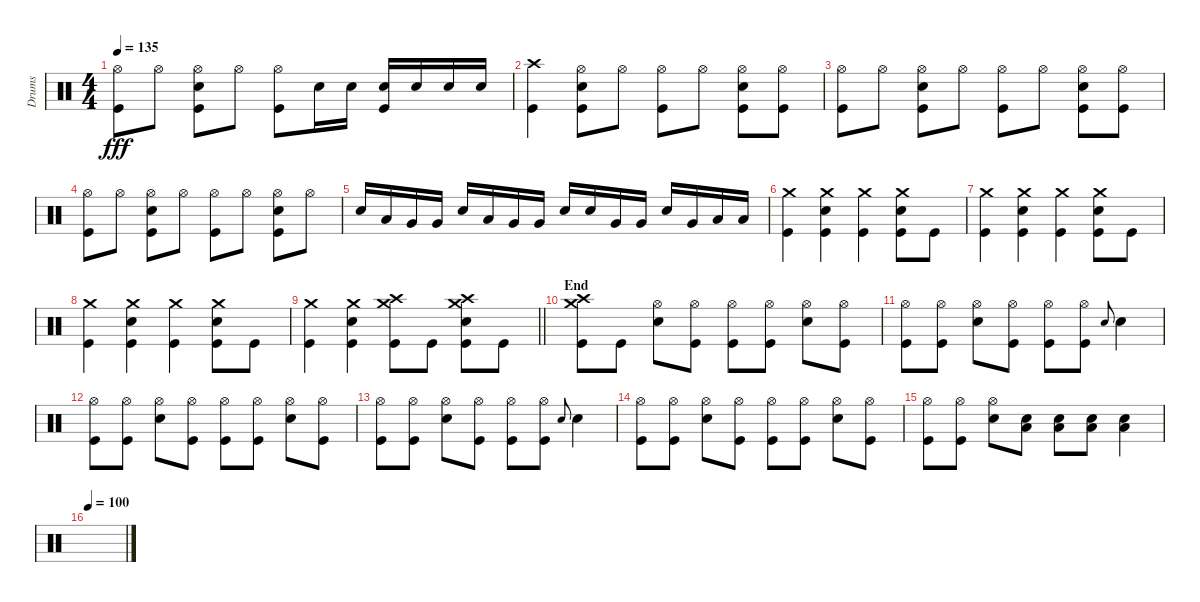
\track ("Drums" "Drums") {instrument percussion}
\staff {score}
\articulation defaults
\ts (4 4)
\tempo 135
\clef neutral
\ks c
("Hi-Hat (open)" "Kick (hit)").8{dy fff} "Hi-Hat (open)".8 ("Hi-Hat (open)" "Snare (hit) 2" "Kick (hit)").8 "Hi-Hat (open)".8 ("Hi-Hat (open)" "Kick (hit)").8 "Snare (hit) 2".16 "Snare (hit) 2".16 ("Snare (hit) 2" "Kick (hit)").16 "Snare (hit) 2".16 "Snare (hit) 2".16 "Snare (hit) 2".16 |
("Crash high (hit)" "Kick (hit)").4 ("Hi-Hat (open)" "Snare (hit) 2" "Kick (hit)").8 "Hi-Hat (open)".8 ("Hi-Hat (open)" "Kick (hit)").8 "Hi-Hat (open)".8 ("Hi-Hat (open)" "Snare (hit) 2" "Kick (hit)").8 ("Hi-Hat (open)" "Kick (hit)").8 |
("Hi-Hat (open)" "Kick (hit)").8 "Hi-Hat (open)".8 ("Hi-Hat (open)" "Snare (hit) 2" "Kick (hit)").8 "Hi-Hat (open)".8 ("Hi-Hat (open)" "Kick (hit)").8 "Hi-Hat (open)".8 ("Hi-Hat (open)" "Snare (hit) 2" "Kick (hit)").8 ("Hi-Hat (open)" "Kick (hit)").8 |
("Hi-Hat (open)" "Kick (hit)").8 "Hi-Hat (open)".8 ("Hi-Hat (open)" "Snare (hit) 2" "Kick (hit)").8 "Hi-Hat (open)".8 ("Hi-Hat (open)" "Kick (hit)").8 "Hi-Hat (open)".8 ("Hi-Hat (open)" "Snare (hit) 2" "Kick (hit)").8 "Hi-Hat (open)".8 |
"Snare (hit) 2".16 "Low Tom (hit)".16 "Very Low Tom (hit)".16 "Very Low Tom (hit)".16 "Snare (hit) 2".16 "Low Tom (hit)".16 "Very Low Tom (hit)".16 "Very Low Tom (hit)".16 "Snare (hit) 2".16 "Snare (hit) 2".16 "Very Low Tom (hit)".16 "Very Low Tom (hit)".16 "Snare (hit) 2".16 "Very Low Tom (hit)".16 "Low Floor Tom (hit)".16 "Low Floor Tom (hit)".16 |
("Crash medium (hit)" "Kick (hit)").4 ("Crash medium (hit)" "Snare (hit) 2" "Kick (hit)").4 ("Crash medium (hit)" "Kick (hit)").4 ("Crash medium (hit)" "Snare (hit) 2" "Kick (hit)").8 "Kick (hit)".8 |
("Crash medium (hit)" "Kick (hit)").4 ("Crash medium (hit)" "Snare (hit) 2" "Kick (hit)").4 ("Crash medium (hit)" "Kick (hit)").4 ("Crash medium (hit)" "Snare (hit) 2" "Kick (hit)").8 "Kick (hit)".8 |
("Crash medium (hit)" "Kick (hit)").4 ("Crash medium (hit)" "Snare (hit) 2" "Kick (hit)").4 ("Crash medium (hit)" "Kick (hit)").4 ("Crash medium (hit)" "Snare (hit) 2" "Kick (hit)").8 "Kick (hit)".8 |
\barLineRight lightlight
("Crash medium (hit)" "Kick (hit)").4 ("Crash medium (hit)" "Snare (hit) 2" "Kick (hit)").4 ("Crash medium (hit)" "Crash high (hit)" "Kick (hit)").8 "Kick (hit)".8 ("Crash medium (hit)" "Crash high (hit)" "Snare (hit) 2" "Kick (hit)").8 "Kick (hit)".8 |
\section ("" "End")
("Crash medium (hit)" "Crash high (hit)" "Kick (hit)").8 "Kick (hit)".8 ("Hi-Hat (open)" "Snare (hit) 2").8 ("Hi-Hat (open)" "Kick (hit)").8 ("Hi-Hat (open)" "Kick (hit)").8 ("Hi-Hat (open)" "Kick (hit)").8 ("Hi-Hat (open)" "Snare (hit) 2").8 ("Hi-Hat (open)" "Kick (hit)").8 |
("Hi-Hat (open)" "Kick (hit)").8 ("Hi-Hat (open)" "Kick (hit)").8 ("Hi-Hat (open)" "Snare (hit) 2").8 ("Hi-Hat (open)" "Kick (hit)").8 ("Hi-Hat (open)" "Kick (hit)").8 ("Hi-Hat (open)" "Kick (hit)").8 "Snare (hit) 2".8{gr onbeat} "Snare (hit) 2".4 |
("Hi-Hat (open)" "Kick (hit)").8 ("Hi-Hat (open)" "Kick (hit)").8 ("Hi-Hat (open)" "Snare (hit) 2").8 ("Hi-Hat (open)" "Kick (hit)").8 ("Hi-Hat (open)" "Kick (hit)").8 ("Hi-Hat (open)" "Kick (hit)").8 ("Hi-Hat (open)" "Snare (hit) 2").8 ("Hi-Hat (open)" "Kick (hit)").8 |
("Hi-Hat (open)" "Kick (hit)").8 ("Hi-Hat (open)" "Kick (hit)").8 ("Hi-Hat (open)" "Snare (hit) 2").8 ("Hi-Hat (open)" "Kick (hit)").8 ("Hi-Hat (open)" "Kick (hit)").8 ("Hi-Hat (open)" "Kick (hit)").8 "Snare (hit) 2".8{gr onbeat} "Snare (hit) 2".4 |
("Hi-Hat (open)" "Kick (hit)").8 ("Hi-Hat (open)" "Kick (hit)").8 ("Hi-Hat (open)" "Snare (hit) 2").8 ("Hi-Hat (open)" "Kick (hit)").8 ("Hi-Hat (open)" "Kick (hit)").8 ("Hi-Hat (open)" "Kick (hit)").8 ("Hi-Hat (open)" "Snare (hit) 2").8 ("Hi-Hat (open)" "Kick (hit)").8 |
("Hi-Hat (open)" "Kick (hit)").8 ("Hi-Hat (open)" "Kick (hit)").8 ("Hi-Hat (open)" "Snare (hit) 2").8 ("Low Floor Tom (hit)" "Snare (hit) 2").8 ("Low Floor Tom (hit)" "Snare (hit) 2").8 ("Low Floor Tom (hit)" "Snare (hit) 2").8 ("Low Floor Tom (hit)" "Snare (hit) 2").4 |
\tempo 100
